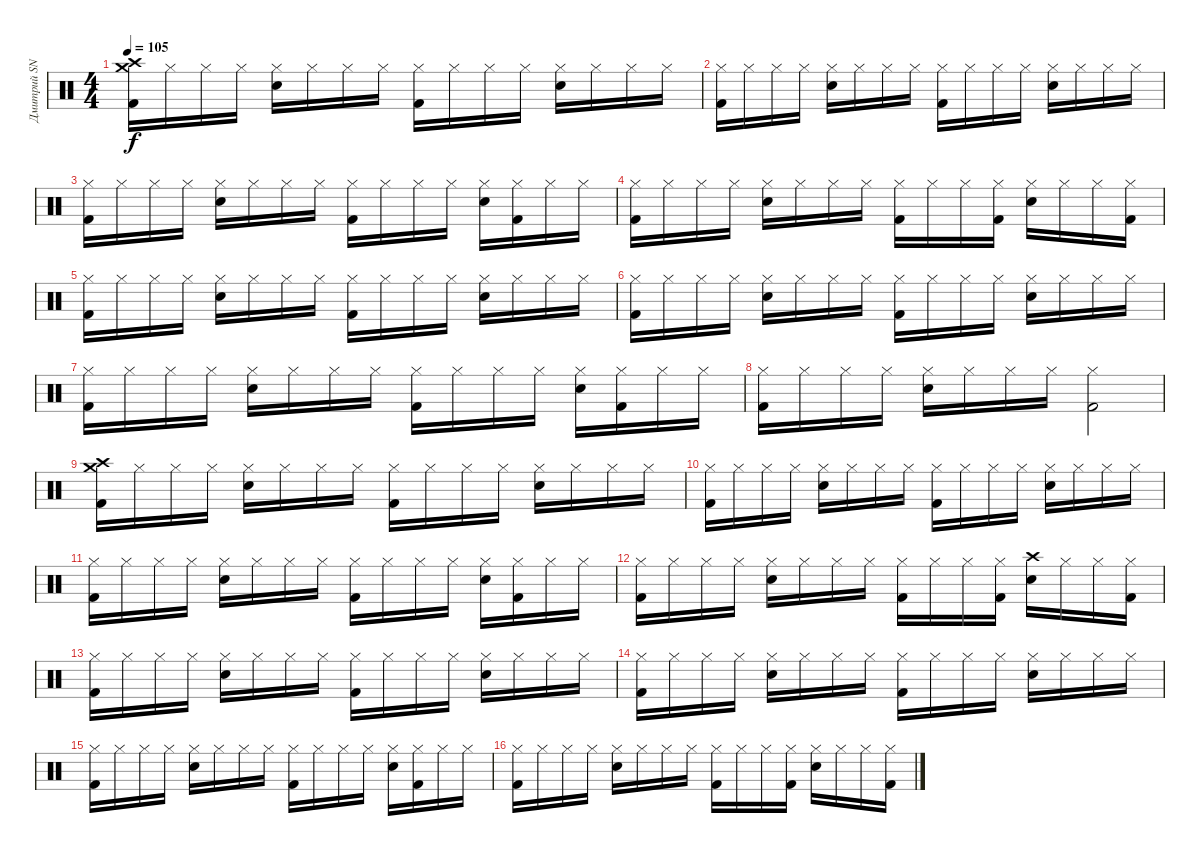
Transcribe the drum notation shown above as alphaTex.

\track ("Дмитрий SNAKE Хакимов (ударные)" "Дмитрий SN") {instrument percussion}
\staff {score}
\articulation defaults
\ts (4 4)
\tempo 105
\clef neutral
\ks c
("Crash high (hit)" "Crash medium (hit)" "Kick (hit) 2").16{dy f} "Hi-Hat (closed)".16 "Hi-Hat (closed)".16 "Hi-Hat (closed)".16 ("Hi-Hat (closed)" "Snare (hit) 2").16 "Hi-Hat (closed)".16 "Hi-Hat (closed)".16 "Hi-Hat (closed)".16 ("Hi-Hat (closed)" "Kick (hit) 2").16 "Hi-Hat (closed)".16 "Hi-Hat (closed)".16 "Hi-Hat (closed)".16 ("Hi-Hat (closed)" "Snare (hit) 2").16 "Hi-Hat (closed)".16 "Hi-Hat (closed)".16 "Hi-Hat (closed)".16 |
("Hi-Hat (closed)" "Kick (hit) 2").16 "Hi-Hat (closed)".16 "Hi-Hat (closed)".16 "Hi-Hat (closed)".16 ("Hi-Hat (closed)" "Snare (hit) 2").16 "Hi-Hat (closed)".16 "Hi-Hat (closed)".16 "Hi-Hat (closed)".16 ("Hi-Hat (closed)" "Kick (hit) 2").16 "Hi-Hat (closed)".16 "Hi-Hat (closed)".16 "Hi-Hat (closed)".16 ("Hi-Hat (closed)" "Snare (hit) 2").16 "Hi-Hat (closed)".16 "Hi-Hat (closed)".16 "Hi-Hat (closed)".16 |
("Hi-Hat (closed)" "Kick (hit) 2").16 "Hi-Hat (closed)".16 "Hi-Hat (closed)".16 "Hi-Hat (closed)".16 ("Hi-Hat (closed)" "Snare (hit) 2").16 "Hi-Hat (closed)".16 "Hi-Hat (closed)".16 "Hi-Hat (closed)".16 ("Hi-Hat (closed)" "Kick (hit) 2").16 "Hi-Hat (closed)".16 "Hi-Hat (closed)".16 "Hi-Hat (closed)".16 ("Hi-Hat (closed)" "Snare (hit) 2").16 ("Hi-Hat (closed)" "Kick (hit) 2").16 "Hi-Hat (closed)".16 "Hi-Hat (closed)".16 |
("Hi-Hat (closed)" "Kick (hit) 2").16 "Hi-Hat (closed)".16 "Hi-Hat (closed)".16 "Hi-Hat (closed)".16 ("Hi-Hat (closed)" "Snare (hit) 2").16 "Hi-Hat (closed)".16 "Hi-Hat (closed)".16 "Hi-Hat (closed)".16 ("Hi-Hat (closed)" "Kick (hit) 2").16 "Hi-Hat (closed)".16 "Hi-Hat (closed)".16 ("Hi-Hat (closed)" "Kick (hit) 2").16 ("Hi-Hat (closed)" "Snare (hit) 2").16 "Hi-Hat (closed)".16 "Hi-Hat (closed)".16 ("Hi-Hat (closed)" "Kick (hit) 2").16 |
("Hi-Hat (closed)" "Kick (hit) 2").16 "Hi-Hat (closed)".16 "Hi-Hat (closed)".16 "Hi-Hat (closed)".16 ("Hi-Hat (closed)" "Snare (hit) 2").16 "Hi-Hat (closed)".16 "Hi-Hat (closed)".16 "Hi-Hat (closed)".16 ("Hi-Hat (closed)" "Kick (hit) 2").16 "Hi-Hat (closed)".16 "Hi-Hat (closed)".16 "Hi-Hat (closed)".16 ("Hi-Hat (closed)" "Snare (hit) 2").16 "Hi-Hat (closed)".16 "Hi-Hat (closed)".16 "Hi-Hat (closed)".16 |
("Hi-Hat (closed)" "Kick (hit) 2").16 "Hi-Hat (closed)".16 "Hi-Hat (closed)".16 "Hi-Hat (closed)".16 ("Hi-Hat (closed)" "Snare (hit) 2").16 "Hi-Hat (closed)".16 "Hi-Hat (closed)".16 "Hi-Hat (closed)".16 ("Hi-Hat (closed)" "Kick (hit) 2").16 "Hi-Hat (closed)".16 "Hi-Hat (closed)".16 "Hi-Hat (closed)".16 ("Hi-Hat (closed)" "Snare (hit) 2").16 "Hi-Hat (closed)".16 "Hi-Hat (closed)".16 "Hi-Hat (closed)".16 |
("Hi-Hat (closed)" "Kick (hit) 2").16 "Hi-Hat (closed)".16 "Hi-Hat (closed)".16 "Hi-Hat (closed)".16 ("Hi-Hat (closed)" "Snare (hit) 2").16 "Hi-Hat (closed)".16 "Hi-Hat (closed)".16 "Hi-Hat (closed)".16 ("Hi-Hat (closed)" "Kick (hit) 2").16 "Hi-Hat (closed)".16 "Hi-Hat (closed)".16 "Hi-Hat (closed)".16 ("Hi-Hat (closed)" "Snare (hit) 2").16 ("Hi-Hat (closed)" "Kick (hit) 2").16 "Hi-Hat (closed)".16 "Hi-Hat (closed)".16 |
("Hi-Hat (closed)" "Kick (hit) 2").16 "Hi-Hat (closed)".16 "Hi-Hat (closed)".16 "Hi-Hat (closed)".16 ("Hi-Hat (closed)" "Snare (hit) 2").16 "Hi-Hat (closed)".16 "Hi-Hat (closed)".16 "Hi-Hat (closed)".16 ("Hi-Hat (closed)" "Kick (hit) 2").2 |
("Crash high (hit)" "Crash medium (hit)" "Kick (hit) 2").16 "Hi-Hat (closed)".16 "Hi-Hat (closed)".16 "Hi-Hat (closed)".16 ("Hi-Hat (closed)" "Snare (hit) 2").16 "Hi-Hat (closed)".16 "Hi-Hat (closed)".16 "Hi-Hat (closed)".16 ("Hi-Hat (closed)" "Kick (hit) 2").16 "Hi-Hat (closed)".16 "Hi-Hat (closed)".16 "Hi-Hat (closed)".16 ("Hi-Hat (closed)" "Snare (hit) 2").16 "Hi-Hat (closed)".16 "Hi-Hat (closed)".16 "Hi-Hat (closed)".16 |
("Hi-Hat (closed)" "Kick (hit) 2").16 "Hi-Hat (closed)".16 "Hi-Hat (closed)".16 "Hi-Hat (closed)".16 ("Hi-Hat (closed)" "Snare (hit) 2").16 "Hi-Hat (closed)".16 "Hi-Hat (closed)".16 "Hi-Hat (closed)".16 ("Hi-Hat (closed)" "Kick (hit) 2").16 "Hi-Hat (closed)".16 "Hi-Hat (closed)".16 "Hi-Hat (closed)".16 ("Hi-Hat (closed)" "Snare (hit) 2").16 "Hi-Hat (closed)".16 "Hi-Hat (closed)".16 "Hi-Hat (closed)".16 |
("Hi-Hat (closed)" "Kick (hit) 2").16 "Hi-Hat (closed)".16 "Hi-Hat (closed)".16 "Hi-Hat (closed)".16 ("Hi-Hat (closed)" "Snare (hit) 2").16 "Hi-Hat (closed)".16 "Hi-Hat (closed)".16 "Hi-Hat (closed)".16 ("Hi-Hat (closed)" "Kick (hit) 2").16 "Hi-Hat (closed)".16 "Hi-Hat (closed)".16 "Hi-Hat (closed)".16 ("Hi-Hat (closed)" "Snare (hit) 2").16 ("Hi-Hat (closed)" "Kick (hit) 2").16 "Hi-Hat (closed)".16 "Hi-Hat (closed)".16 |
("Hi-Hat (closed)" "Kick (hit) 2").16 "Hi-Hat (closed)".16 "Hi-Hat (closed)".16 "Hi-Hat (closed)".16 ("Hi-Hat (closed)" "Snare (hit) 2").16 "Hi-Hat (closed)".16 "Hi-Hat (closed)".16 "Hi-Hat (closed)".16 ("Hi-Hat (closed)" "Kick (hit) 2").16 "Hi-Hat (closed)".16 "Hi-Hat (closed)".16 ("Hi-Hat (closed)" "Kick (hit) 2").16 ("Crash high (hit)" "Snare (hit) 2").16 "Hi-Hat (closed)".16 "Hi-Hat (closed)".16 ("Hi-Hat (closed)" "Kick (hit) 2").16 |
("Hi-Hat (closed)" "Kick (hit) 2").16 "Hi-Hat (closed)".16 "Hi-Hat (closed)".16 "Hi-Hat (closed)".16 ("Hi-Hat (closed)" "Snare (hit) 2").16 "Hi-Hat (closed)".16 "Hi-Hat (closed)".16 "Hi-Hat (closed)".16 ("Hi-Hat (closed)" "Kick (hit) 2").16 "Hi-Hat (closed)".16 "Hi-Hat (closed)".16 "Hi-Hat (closed)".16 ("Hi-Hat (closed)" "Snare (hit) 2").16 "Hi-Hat (closed)".16 "Hi-Hat (closed)".16 "Hi-Hat (closed)".16 |
("Hi-Hat (closed)" "Kick (hit) 2").16 "Hi-Hat (closed)".16 "Hi-Hat (closed)".16 "Hi-Hat (closed)".16 ("Hi-Hat (closed)" "Snare (hit) 2").16 "Hi-Hat (closed)".16 "Hi-Hat (closed)".16 "Hi-Hat (closed)".16 ("Hi-Hat (closed)" "Kick (hit) 2").16 "Hi-Hat (closed)".16 "Hi-Hat (closed)".16 "Hi-Hat (closed)".16 ("Hi-Hat (closed)" "Snare (hit) 2").16 "Hi-Hat (closed)".16 "Hi-Hat (closed)".16 "Hi-Hat (closed)".16 |
("Hi-Hat (closed)" "Kick (hit) 2").16 "Hi-Hat (closed)".16 "Hi-Hat (closed)".16 "Hi-Hat (closed)".16 ("Hi-Hat (closed)" "Snare (hit) 2").16 "Hi-Hat (closed)".16 "Hi-Hat (closed)".16 "Hi-Hat (closed)".16 ("Hi-Hat (closed)" "Kick (hit) 2").16 "Hi-Hat (closed)".16 "Hi-Hat (closed)".16 "Hi-Hat (closed)".16 ("Hi-Hat (closed)" "Snare (hit) 2").16 ("Hi-Hat (closed)" "Kick (hit) 2").16 "Hi-Hat (closed)".16 "Hi-Hat (closed)".16 |
("Hi-Hat (closed)" "Kick (hit) 2").16 "Hi-Hat (closed)".16 "Hi-Hat (closed)".16 "Hi-Hat (closed)".16 ("Hi-Hat (closed)" "Snare (hit) 2").16 "Hi-Hat (closed)".16 "Hi-Hat (closed)".16 "Hi-Hat (closed)".16 ("Hi-Hat (closed)" "Kick (hit) 2").16 "Hi-Hat (closed)".16 "Hi-Hat (closed)".16 ("Hi-Hat (closed)" "Kick (hit) 2").16 ("Hi-Hat (closed)" "Snare (hit) 2").16 "Hi-Hat (closed)".16 "Hi-Hat (closed)".16 ("Hi-Hat (closed)" "Kick (hit) 2").16
